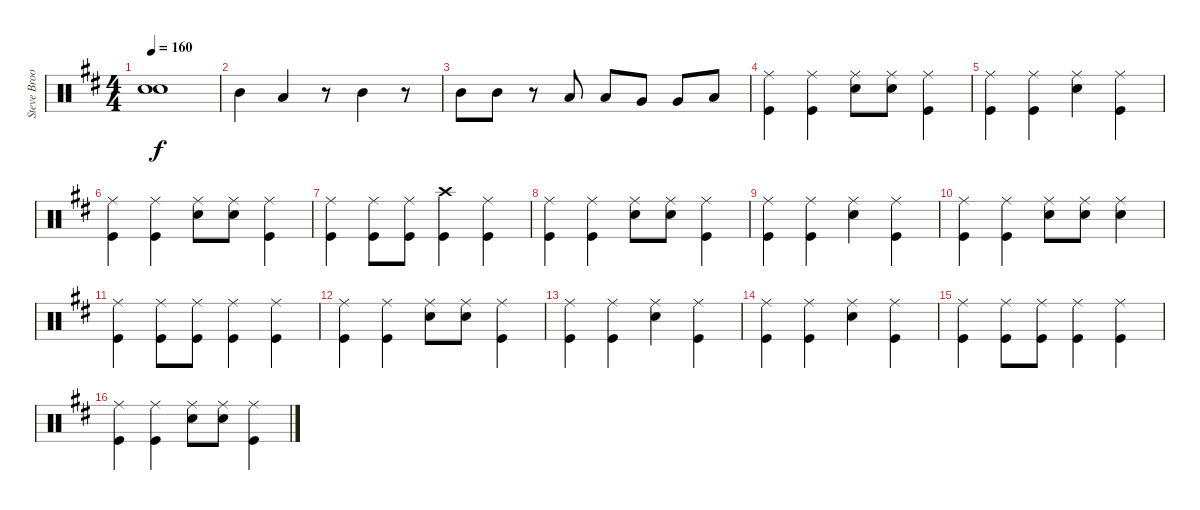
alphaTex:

\track ("Steve Brookins Drums" "Steve Broo") {instrument percussion}
\staff {score}
\articulation defaults
\ts (4 4)
\tempo 160
\clef neutral
\ks d
("Snare (hit)"{t} "Snare (hit)"{t}).1{dy f} |
"Mid Tom (hit)".4 "Low Tom (hit)".4 r.8 "Mid Tom (hit)".4 r.8 |
"Mid Tom (hit)".8 "Mid Tom (hit)".8 r.8 "Low Tom (hit)".8 "Low Tom (hit)".8 "Very Low Tom (hit)".8 "Very Low Tom (hit)".8 "Low Floor Tom (hit)".8 |
("Ride (middle)" "Kick (hit)").4 ("Ride (middle)" "Kick (hit)").4 ("Ride (middle)" "Snare (hit) 2").8 ("Ride (middle)" "Snare (hit) 2").8 ("Ride (middle)" "Kick (hit)").4 |
("Ride (middle)" "Kick (hit)").4 ("Ride (middle)" "Kick (hit)").4 ("Ride (middle)" "Snare (hit) 2").4 ("Ride (middle)" "Kick (hit)").4 |
("Ride (middle)" "Kick (hit)").4 ("Ride (middle)" "Kick (hit)").4 ("Ride (middle)" "Snare (hit) 2").8 ("Ride (middle)" "Snare (hit) 2").8 ("Ride (middle)" "Kick (hit)").4 |
("Ride (middle)" "Kick (hit)").4 ("Ride (middle)" "Kick (hit)").8 ("Ride (middle)" "Kick (hit)").8 ("Crash high (hit)" "Kick (hit)").4 ("Ride (middle)" "Kick (hit)").4 |
("Ride (middle)" "Kick (hit)").4 ("Ride (middle)" "Kick (hit)").4 ("Ride (middle)" "Snare (hit) 2").8 ("Ride (middle)" "Snare (hit) 2").8 ("Ride (middle)" "Kick (hit)").4 |
("Ride (middle)" "Kick (hit)").4 ("Ride (middle)" "Kick (hit)").4 ("Ride (middle)" "Snare (hit) 2").4 ("Ride (middle)" "Kick (hit)").4 |
("Ride (middle)" "Kick (hit)").4 ("Ride (middle)" "Kick (hit)").4 ("Ride (middle)" "Snare (hit) 2").8 ("Ride (middle)" "Snare (hit) 2").8 ("Ride (middle)" "Snare (hit) 2").4 |
("Ride (middle)" "Kick (hit)").4 ("Ride (middle)" "Kick (hit)").8 ("Ride (middle)" "Kick (hit)").8 ("Ride (middle)" "Kick (hit)").4 ("Ride (middle)" "Kick (hit)").4 |
("Ride (middle)" "Kick (hit)").4 ("Ride (middle)" "Kick (hit)").4 ("Ride (middle)" "Snare (hit) 2").8 ("Ride (middle)" "Snare (hit) 2").8 ("Ride (middle)" "Kick (hit)").4 |
("Ride (middle)" "Kick (hit)").4 ("Ride (middle)" "Kick (hit)").4 ("Ride (middle)" "Snare (hit) 2").4 ("Ride (middle)" "Kick (hit)").4 |
("Ride (middle)" "Kick (hit)").4 ("Ride (middle)" "Kick (hit)").4 ("Ride (middle)" "Snare (hit) 2").4 ("Ride (middle)" "Kick (hit)").4 |
("Ride (middle)" "Kick (hit)").4 ("Ride (middle)" "Kick (hit)").8 ("Ride (middle)" "Kick (hit)").8 ("Ride (middle)" "Kick (hit)").4 ("Ride (middle)" "Kick (hit)").4 |
("Ride (middle)" "Kick (hit)").4 ("Ride (middle)" "Kick (hit)").4 ("Ride (middle)" "Snare (hit) 2").8 ("Ride (middle)" "Snare (hit) 2").8 ("Ride (middle)" "Kick (hit)").4
